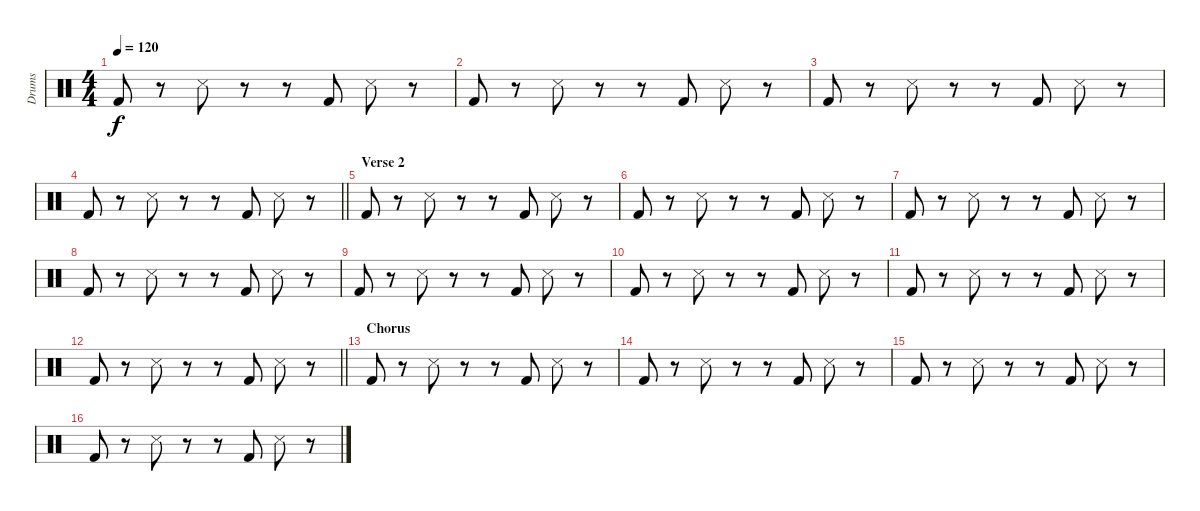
\track ("Drums" "Drums") {instrument percussion}
\staff {score}
\articulation defaults
\ts (4 4)
\tempo 120
\clef neutral
\ks c "Kick (hit) 2".8{dy f}
r.8 "Snare (side stick) 3".8 r.8 r.8 "Kick (hit) 2".8 "Snare (side stick) 3".8 r.8 |
"Kick (hit) 2".8 r.8 "Snare (side stick) 3".8 r.8 r.8 "Kick (hit) 2".8 "Snare (side stick) 3".8 r.8 |
"Kick (hit) 2".8 r.8 "Snare (side stick) 3".8 r.8 r.8 "Kick (hit) 2".8 "Snare (side stick) 3".8 r.8 |
\barLineRight lightlight "Kick (hit) 2".8
r.8 "Snare (side stick) 3".8 r.8 r.8 "Kick (hit) 2".8 "Snare (side stick) 3".8 r.8 |
\section ("" "Verse 2")
"Kick (hit) 2".8 r.8 "Snare (side stick) 3".8 r.8 r.8 "Kick (hit) 2".8 "Snare (side stick) 3".8 r.8 |
"Kick (hit) 2".8 r.8 "Snare (side stick) 3".8 r.8 r.8 "Kick (hit) 2".8 "Snare (side stick) 3".8 r.8 |
"Kick (hit) 2".8 r.8 "Snare (side stick) 3".8 r.8 r.8 "Kick (hit) 2".8 "Snare (side stick) 3".8 r.8 |
"Kick (hit) 2".8 r.8 "Snare (side stick) 3".8 r.8 r.8 "Kick (hit) 2".8 "Snare (side stick) 3".8 r.8 |
"Kick (hit) 2".8 r.8 "Snare (side stick) 3".8 r.8 r.8 "Kick (hit) 2".8 "Snare (side stick) 3".8 r.8 |
"Kick (hit) 2".8 r.8 "Snare (side stick) 3".8 r.8 r.8 "Kick (hit) 2".8 "Snare (side stick) 3".8 r.8 |
"Kick (hit) 2".8 r.8 "Snare (side stick) 3".8 r.8 r.8 "Kick (hit) 2".8 "Snare (side stick) 3".8 r.8 |
\barLineRight lightlight "Kick (hit) 2".8
r.8 "Snare (side stick) 3".8 r.8 r.8 "Kick (hit) 2".8 "Snare (side stick) 3".8 r.8 |
\section ("" "Chorus")
"Kick (hit) 2".8 r.8 "Snare (side stick) 3".8 r.8 r.8 "Kick (hit) 2".8 "Snare (side stick) 3".8 r.8 |
"Kick (hit) 2".8 r.8 "Snare (side stick) 3".8 r.8 r.8 "Kick (hit) 2".8 "Snare (side stick) 3".8 r.8 |
"Kick (hit) 2".8 r.8 "Snare (side stick) 3".8 r.8 r.8 "Kick (hit) 2".8 "Snare (side stick) 3".8 r.8 |
"Kick (hit) 2".8 r.8 "Snare (side stick) 3".8 r.8 r.8 "Kick (hit) 2".8 "Snare (side stick) 3".8 r.8
